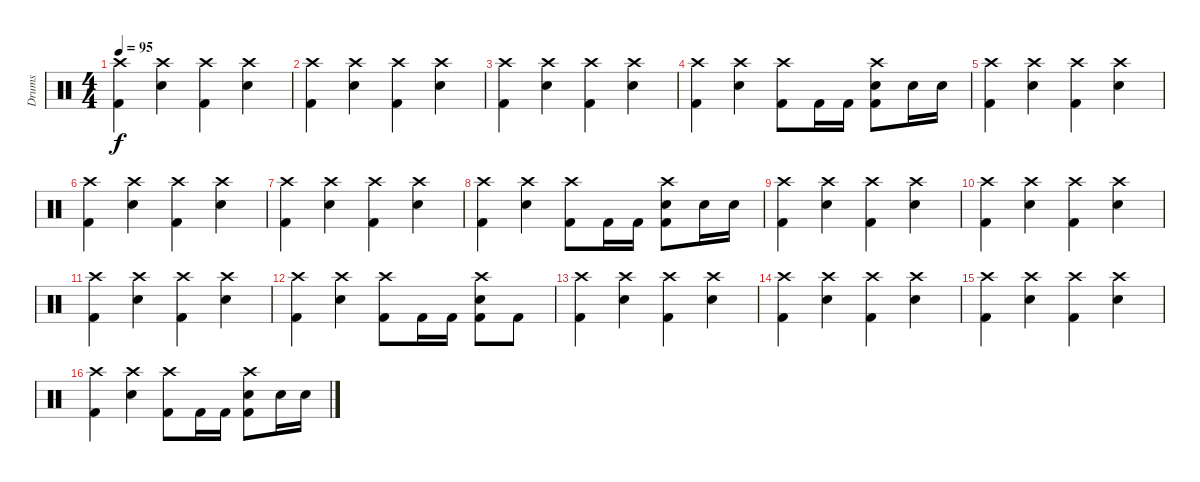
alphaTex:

\track ("Drums" "Drums") {instrument percussion}
\staff {score}
\articulation defaults
\ts (4 4)
\tempo 95
\clef neutral
\ks c
("Crash high (hit)" "Kick (hit) 2").4{dy f} ("Crash high (hit)" "Electric Snare (hit)").4 ("Crash high (hit)" "Kick (hit) 2").4 ("Crash high (hit)" "Electric Snare (hit)").4 |
("Crash high (hit)" "Kick (hit) 2").4 ("Crash high (hit)" "Electric Snare (hit)").4 ("Crash high (hit)" "Kick (hit) 2").4 ("Crash high (hit)" "Electric Snare (hit)").4 |
("Crash high (hit)" "Kick (hit) 2").4 ("Crash high (hit)" "Electric Snare (hit)").4 ("Crash high (hit)" "Kick (hit) 2").4 ("Crash high (hit)" "Electric Snare (hit)").4 |
("Crash high (hit)" "Kick (hit) 2").4 ("Crash high (hit)" "Electric Snare (hit)").4 ("Crash high (hit)" "Kick (hit) 2").8 "Kick (hit) 2".16 "Kick (hit) 2".16 ("Crash high (hit)" "Electric Snare (hit)" "Kick (hit) 2").8 "Electric Snare (hit)".16 "Electric Snare (hit)".16 |
("Crash high (hit)" "Kick (hit) 2").4 ("Crash high (hit)" "Electric Snare (hit)").4 ("Crash high (hit)" "Kick (hit) 2").4 ("Crash high (hit)" "Electric Snare (hit)").4 |
("Crash high (hit)" "Kick (hit) 2").4 ("Crash high (hit)" "Electric Snare (hit)").4 ("Crash high (hit)" "Kick (hit) 2").4 ("Crash high (hit)" "Electric Snare (hit)").4 |
("Crash high (hit)" "Kick (hit) 2").4 ("Crash high (hit)" "Electric Snare (hit)").4 ("Crash high (hit)" "Kick (hit) 2").4 ("Crash high (hit)" "Electric Snare (hit)").4 |
("Crash high (hit)" "Kick (hit) 2").4 ("Crash high (hit)" "Electric Snare (hit)").4 ("Crash high (hit)" "Kick (hit) 2").8 "Kick (hit) 2".16 "Kick (hit) 2".16 ("Crash high (hit)" "Electric Snare (hit)" "Kick (hit) 2").8 "Electric Snare (hit)".16 "Electric Snare (hit)".16 |
("Crash high (hit)" "Kick (hit) 2").4 ("Crash high (hit)" "Electric Snare (hit)").4 ("Crash high (hit)" "Kick (hit) 2").4 ("Crash high (hit)" "Electric Snare (hit)").4 |
("Crash high (hit)" "Kick (hit) 2").4 ("Crash high (hit)" "Electric Snare (hit)").4 ("Crash high (hit)" "Kick (hit) 2").4 ("Crash high (hit)" "Electric Snare (hit)").4 |
("Crash high (hit)" "Kick (hit) 2").4 ("Crash high (hit)" "Electric Snare (hit)").4 ("Crash high (hit)" "Kick (hit) 2").4 ("Crash high (hit)" "Electric Snare (hit)").4 |
("Crash high (hit)" "Kick (hit) 2").4 ("Crash high (hit)" "Electric Snare (hit)").4 ("Crash high (hit)" "Kick (hit) 2").8 "Kick (hit) 2".16 "Kick (hit) 2".16 ("Crash high (hit)" "Electric Snare (hit)" "Kick (hit) 2").8 "Kick (hit) 2".8 |
("Crash high (hit)" "Kick (hit) 2").4 ("Crash high (hit)" "Electric Snare (hit)").4 ("Crash high (hit)" "Kick (hit) 2").4 ("Crash high (hit)" "Electric Snare (hit)").4 |
("Crash high (hit)" "Kick (hit) 2").4 ("Crash high (hit)" "Electric Snare (hit)").4 ("Crash high (hit)" "Kick (hit) 2").4 ("Crash high (hit)" "Electric Snare (hit)").4 |
("Crash high (hit)" "Kick (hit) 2").4 ("Crash high (hit)" "Electric Snare (hit)").4 ("Crash high (hit)" "Kick (hit) 2").4 ("Crash high (hit)" "Electric Snare (hit)").4 |
("Crash high (hit)" "Kick (hit) 2").4 ("Crash high (hit)" "Electric Snare (hit)").4 ("Crash high (hit)" "Kick (hit) 2").8 "Kick (hit) 2".16 "Kick (hit) 2".16 ("Crash high (hit)" "Electric Snare (hit)" "Kick (hit) 2").8 "Electric Snare (hit)".16 "Electric Snare (hit)".16
